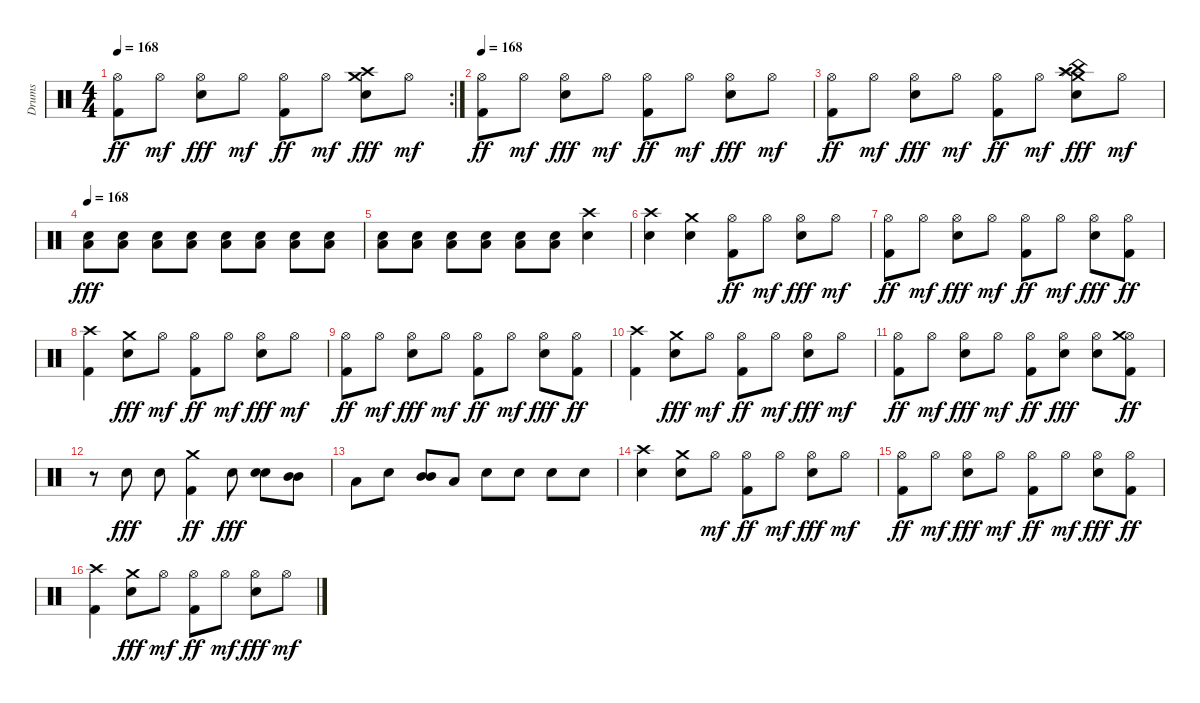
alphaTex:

\track ("Drums" "Drums") {instrument percussion}
\staff {score}
\articulation defaults
\rc 2
\ts (4 4)
\tempo 168
\clef neutral
\ks c
("Hi-Hat (open)" "Kick (hit) 2").8{dy ff} "Hi-Hat (open)".8{dy mf} ("Hi-Hat (open)" "Snare (hit) 2").8{dy fff} "Hi-Hat (open)".8{dy mf} ("Hi-Hat (open)" "Kick (hit) 2").8{dy ff} "Hi-Hat (open)".8{dy mf} ("Snare (hit) 2" "Crash high (hit)" "Crash medium (hit)").8{dy fff} "Hi-Hat (open)".8{dy mf} |
\tempo 168
("Hi-Hat (open)" "Kick (hit) 2").8{dy ff} "Hi-Hat (open)".8{dy mf} ("Hi-Hat (open)" "Snare (hit) 2").8{dy fff} "Hi-Hat (open)".8{dy mf} ("Hi-Hat (open)" "Kick (hit) 2").8{dy ff} "Hi-Hat (open)".8{dy mf} ("Hi-Hat (open)" "Snare (hit) 2").8{dy fff} "Hi-Hat (open)".8{dy mf} |
("Hi-Hat (open)" "Kick (hit) 2").8{dy ff} "Hi-Hat (open)".8{dy mf} ("Hi-Hat (open)" "Snare (hit) 2").8{dy fff} "Hi-Hat (open)".8{dy mf} ("Hi-Hat (open)" "Kick (hit) 2").8{dy ff} "Hi-Hat (open)".8{dy mf} ("Snare (hit) 2" "Crash high (hit)" "Crash medium (hit)" "Splash (hit)" "China (hit)").8{dy fff} "Hi-Hat (open)".8{dy mf} |
\tempo 168
("Snare (hit) 2" "Low Floor Tom (hit)").8{dy fff} ("Snare (hit) 2" "Low Floor Tom (hit)").8 ("Snare (hit) 2" "Low Floor Tom (hit)").8 ("Snare (hit) 2" "Low Floor Tom (hit)").8 ("Snare (hit) 2" "Low Floor Tom (hit)").8 ("Snare (hit) 2" "Low Floor Tom (hit)").8 ("Snare (hit) 2" "Low Floor Tom (hit)").8 ("Snare (hit) 2" "Low Floor Tom (hit)").8 |
("Snare (hit) 2" "Low Floor Tom (hit)").8 ("Snare (hit) 2" "Low Floor Tom (hit)").8 ("Snare (hit) 2" "Low Floor Tom (hit)").8 ("Snare (hit) 2" "Low Floor Tom (hit)").8 ("Snare (hit) 2" "Low Floor Tom (hit)").8 ("Snare (hit) 2" "Low Floor Tom (hit)").8 ("Snare (hit) 2" "Crash high (hit)").4 |
("Snare (hit) 2" "Crash high (hit)").4 ("Snare (hit) 2" "Crash medium (hit)").4 ("Hi-Hat (open)" "Kick (hit) 2").8{dy ff} "Hi-Hat (open)".8{dy mf} ("Hi-Hat (open)" "Snare (hit) 2").8{dy fff} "Hi-Hat (open)".8{dy mf} |
("Hi-Hat (open)" "Kick (hit) 2").8{dy ff} "Hi-Hat (open)".8{dy mf} ("Hi-Hat (open)" "Snare (hit) 2").8{dy fff} "Hi-Hat (open)".8{dy mf} ("Hi-Hat (open)" "Kick (hit) 2").8{dy ff} "Hi-Hat (open)".8{dy mf} ("Hi-Hat (open)" "Snare (hit) 2").8{dy fff} ("Hi-Hat (open)" "Kick (hit) 2").8{dy ff} |
("Kick (hit) 2" "Crash high (hit)").4 ("Snare (hit) 2" "Crash medium (hit)").8{dy fff} "Hi-Hat (open)".8{dy mf} ("Hi-Hat (open)" "Kick (hit) 2").8{dy ff} "Hi-Hat (open)".8{dy mf} ("Hi-Hat (open)" "Snare (hit) 2").8{dy fff} "Hi-Hat (open)".8{dy mf} |
("Hi-Hat (open)" "Kick (hit) 2").8{dy ff} "Hi-Hat (open)".8{dy mf} ("Hi-Hat (open)" "Snare (hit) 2").8{dy fff} "Hi-Hat (open)".8{dy mf} ("Hi-Hat (open)" "Kick (hit) 2").8{dy ff} "Hi-Hat (open)".8{dy mf} ("Hi-Hat (open)" "Snare (hit) 2").8{dy fff} ("Hi-Hat (open)" "Kick (hit) 2").8{dy ff} |
("Kick (hit) 2" "Crash high (hit)").4 ("Snare (hit) 2" "Crash medium (hit)").8{dy fff} "Hi-Hat (open)".8{dy mf} ("Hi-Hat (open)" "Kick (hit) 2").8{dy ff} "Hi-Hat (open)".8{dy mf} ("Hi-Hat (open)" "Snare (hit) 2").8{dy fff} "Hi-Hat (open)".8{dy mf} |
("Hi-Hat (open)" "Kick (hit) 2").8{dy ff} "Hi-Hat (open)".8{dy mf} ("Hi-Hat (open)" "Snare (hit) 2").8{dy fff} "Hi-Hat (open)".8{dy mf} ("Hi-Hat (open)" "Kick (hit) 2").8{dy ff} ("Hi-Hat (open)" "Snare (hit) 2").8{dy fff} ("Hi-Hat (open)" "Snare (hit) 2").8 ("Hi-Hat (open)" "Kick (hit) 2" "Crash medium (hit)").8{dy ff} |
r.8 "Snare (hit) 2".8{dy fff} "Snare (hit) 2".8 ("Kick (hit) 2" "Crash medium (hit)").4{dy ff} "Snare (hit) 2".8{dy fff} ("Snare (hit) 2" "Snare (hit) 2").8 ("Mid Tom (hit)" "Mid Tom (hit)").8 |
"Low Tom (hit)".8 "Electric Snare (hit)".8 ("Mid Tom (hit)" "Mid Tom (hit)").8 "Low Tom (hit)".8 "Snare (hit) 2".8 "Snare (hit) 2".8 "Snare (hit) 2".8 "Snare (hit) 2".8 |
("Electric Snare (hit)" "Crash high (hit)").4 ("Snare (hit) 2" "Crash medium (hit)").8 "Hi-Hat (open)".8{dy mf} ("Hi-Hat (open)" "Kick (hit) 2").8{dy ff} "Hi-Hat (open)".8{dy mf} ("Hi-Hat (open)" "Snare (hit) 2").8{dy fff} "Hi-Hat (open)".8{dy mf} |
("Hi-Hat (open)" "Kick (hit) 2").8{dy ff} "Hi-Hat (open)".8{dy mf} ("Hi-Hat (open)" "Snare (hit) 2").8{dy fff} "Hi-Hat (open)".8{dy mf} ("Hi-Hat (open)" "Kick (hit) 2").8{dy ff} "Hi-Hat (open)".8{dy mf} ("Hi-Hat (open)" "Snare (hit) 2").8{dy fff} ("Hi-Hat (open)" "Kick (hit) 2").8{dy ff} |
("Kick (hit) 2" "Crash high (hit)").4 ("Snare (hit) 2" "Crash medium (hit)").8{dy fff} "Hi-Hat (open)".8{dy mf} ("Hi-Hat (open)" "Kick (hit) 2").8{dy ff} "Hi-Hat (open)".8{dy mf} ("Hi-Hat (open)" "Snare (hit) 2").8{dy fff} "Hi-Hat (open)".8{dy mf}
